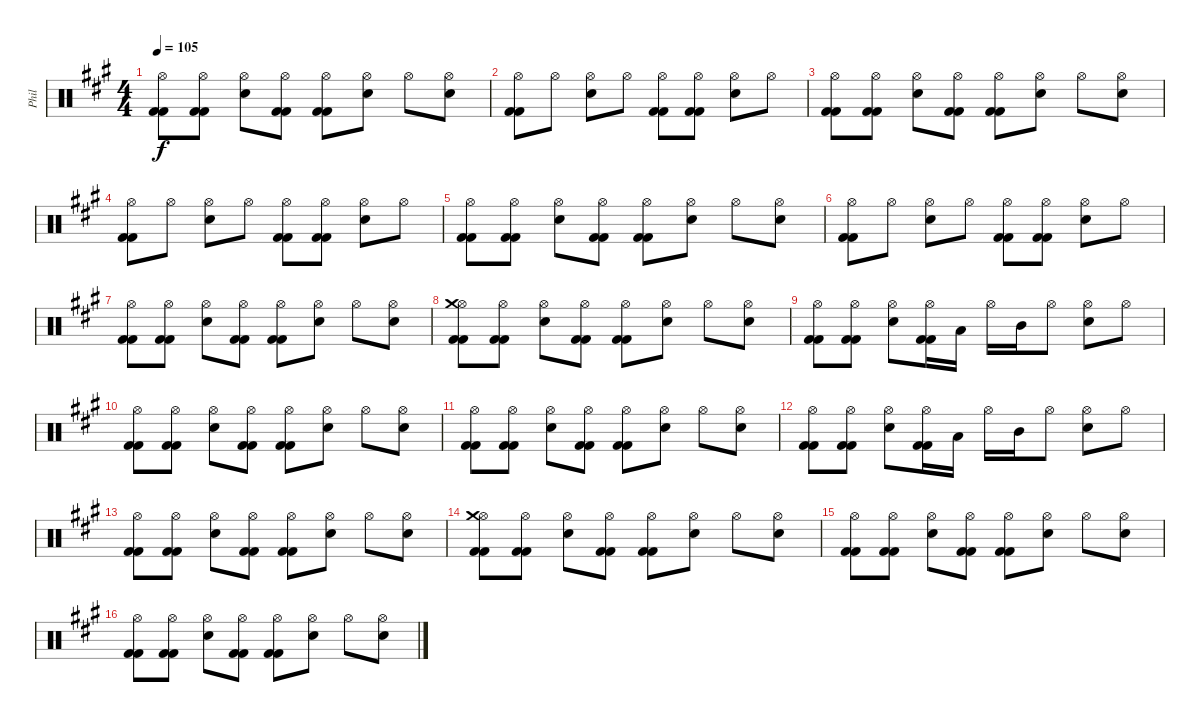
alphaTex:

\track ("Phil" "Phil") {instrument percussion}
\staff {score}
\articulation defaults
\ts (4 4)
\tempo 105
\clef neutral
\ks a
("Kick (hit) 2" "Hi-Hat (open)" "Kick (hit) 2").8{dy f} ("Kick (hit) 2" "Hi-Hat (open)" "Kick (hit) 2").8 ("Hi-Hat (open)" "Electric Snare (hit)").8 ("Kick (hit) 2" "Hi-Hat (open)" "Kick (hit) 2").8 ("Kick (hit) 2" "Hi-Hat (open)" "Kick (hit) 2").8 ("Hi-Hat (open)" "Electric Snare (hit)").8 "Hi-Hat (open)".8 ("Hi-Hat (open)" "Electric Snare (hit)").8 |
("Kick (hit) 2" "Hi-Hat (open)" "Kick (hit) 2").8 "Hi-Hat (open)".8 ("Hi-Hat (open)" "Electric Snare (hit)").8 "Hi-Hat (open)".8 ("Kick (hit) 2" "Hi-Hat (open)" "Kick (hit) 2").8 ("Kick (hit) 2" "Hi-Hat (open)" "Kick (hit) 2").8 ("Hi-Hat (open)" "Electric Snare (hit)").8 "Hi-Hat (open)".8 |
("Kick (hit) 2" "Hi-Hat (open)" "Kick (hit) 2").8 ("Kick (hit) 2" "Hi-Hat (open)" "Kick (hit) 2").8 ("Hi-Hat (open)" "Electric Snare (hit)").8 ("Kick (hit) 2" "Hi-Hat (open)" "Kick (hit) 2").8 ("Kick (hit) 2" "Hi-Hat (open)" "Kick (hit) 2").8 ("Hi-Hat (open)" "Electric Snare (hit)").8 "Hi-Hat (open)".8 ("Hi-Hat (open)" "Electric Snare (hit)").8 |
("Kick (hit) 2" "Hi-Hat (open)" "Kick (hit) 2").8 "Hi-Hat (open)".8 ("Hi-Hat (open)" "Electric Snare (hit)").8 "Hi-Hat (open)".8 ("Kick (hit) 2" "Hi-Hat (open)" "Kick (hit) 2").8 ("Kick (hit) 2" "Hi-Hat (open)" "Kick (hit) 2").8 ("Hi-Hat (open)" "Electric Snare (hit)").8 "Hi-Hat (open)".8 |
("Kick (hit) 2" "Hi-Hat (open)" "Kick (hit) 2").8 ("Kick (hit) 2" "Hi-Hat (open)" "Kick (hit) 2").8 ("Hi-Hat (open)" "Electric Snare (hit)").8 ("Kick (hit) 2" "Hi-Hat (open)" "Kick (hit) 2").8 ("Kick (hit) 2" "Hi-Hat (open)" "Kick (hit) 2").8 ("Hi-Hat (open)" "Electric Snare (hit)").8 "Hi-Hat (open)".8 ("Hi-Hat (open)" "Electric Snare (hit)").8 |
("Kick (hit) 2" "Hi-Hat (open)" "Kick (hit) 2").8 "Hi-Hat (open)".8 ("Hi-Hat (open)" "Electric Snare (hit)").8 "Hi-Hat (open)".8 ("Kick (hit) 2" "Hi-Hat (open)" "Kick (hit) 2").8 ("Kick (hit) 2" "Hi-Hat (open)" "Kick (hit) 2").8 ("Hi-Hat (open)" "Electric Snare (hit)").8 "Hi-Hat (open)".8 |
("Kick (hit) 2" "Hi-Hat (open)" "Kick (hit) 2").8 ("Kick (hit) 2" "Hi-Hat (open)" "Kick (hit) 2").8 ("Hi-Hat (open)" "Electric Snare (hit)").8 ("Kick (hit) 2" "Hi-Hat (open)" "Kick (hit) 2").8 ("Kick (hit) 2" "Hi-Hat (open)" "Kick (hit) 2").8 ("Hi-Hat (open)" "Electric Snare (hit)").8 "Hi-Hat (open)".8 ("Hi-Hat (open)" "Electric Snare (hit)").8 |
("Kick (hit) 2" "Hi-Hat (open)" "Kick (hit) 2" "Crash medium (hit)").8 ("Kick (hit) 2" "Hi-Hat (open)" "Kick (hit) 2").8 ("Hi-Hat (open)" "Electric Snare (hit)").8 ("Kick (hit) 2" "Hi-Hat (open)" "Kick (hit) 2").8 ("Kick (hit) 2" "Hi-Hat (open)" "Kick (hit) 2").8 ("Hi-Hat (open)" "Electric Snare (hit)").8 "Hi-Hat (open)".8 ("Hi-Hat (open)" "Electric Snare (hit)").8 |
("Kick (hit) 2" "Hi-Hat (open)" "Kick (hit) 2").8 ("Kick (hit) 2" "Hi-Hat (open)" "Kick (hit) 2").8 ("Hi-Hat (open)" "Electric Snare (hit)").8 ("Kick (hit) 2" "Hi-Hat (open)" "Kick (hit) 2").16 "Low Tom (hit)".16 "Hi-Hat (open)".16 "Mid Tom (hit)".16 "Hi-Hat (open)".8 ("Hi-Hat (open)" "Electric Snare (hit)").8 "Hi-Hat (open)".8 |
("Kick (hit) 2" "Hi-Hat (open)" "Kick (hit) 2").8 ("Kick (hit) 2" "Hi-Hat (open)" "Kick (hit) 2").8 ("Hi-Hat (open)" "Electric Snare (hit)").8 ("Kick (hit) 2" "Hi-Hat (open)" "Kick (hit) 2").8 ("Kick (hit) 2" "Hi-Hat (open)" "Kick (hit) 2").8 ("Hi-Hat (open)" "Electric Snare (hit)").8 "Hi-Hat (open)".8 ("Hi-Hat (open)" "Electric Snare (hit)").8 |
("Kick (hit) 2" "Hi-Hat (open)" "Kick (hit) 2").8 ("Kick (hit) 2" "Hi-Hat (open)" "Kick (hit) 2").8 ("Hi-Hat (open)" "Electric Snare (hit)").8 ("Kick (hit) 2" "Hi-Hat (open)" "Kick (hit) 2").8 ("Kick (hit) 2" "Hi-Hat (open)" "Kick (hit) 2").8 ("Hi-Hat (open)" "Electric Snare (hit)").8 "Hi-Hat (open)".8 ("Hi-Hat (open)" "Electric Snare (hit)").8 |
("Kick (hit) 2" "Hi-Hat (open)" "Kick (hit) 2").8 ("Kick (hit) 2" "Hi-Hat (open)" "Kick (hit) 2").8 ("Hi-Hat (open)" "Electric Snare (hit)").8 ("Kick (hit) 2" "Hi-Hat (open)" "Kick (hit) 2").16 "Low Tom (hit)".16 "Hi-Hat (open)".16 "Mid Tom (hit)".16 "Hi-Hat (open)".8 ("Hi-Hat (open)" "Electric Snare (hit)").8 "Hi-Hat (open)".8 |
("Kick (hit) 2" "Hi-Hat (open)" "Kick (hit) 2").8 ("Kick (hit) 2" "Hi-Hat (open)" "Kick (hit) 2").8 ("Hi-Hat (open)" "Electric Snare (hit)").8 ("Kick (hit) 2" "Hi-Hat (open)" "Kick (hit) 2").8 ("Kick (hit) 2" "Hi-Hat (open)" "Kick (hit) 2").8 ("Hi-Hat (open)" "Electric Snare (hit)").8 "Hi-Hat (open)".8 ("Hi-Hat (open)" "Electric Snare (hit)").8 |
("Kick (hit) 2" "Hi-Hat (open)" "Kick (hit) 2" "Crash medium (hit)").8 ("Kick (hit) 2" "Hi-Hat (open)" "Kick (hit) 2").8 ("Hi-Hat (open)" "Electric Snare (hit)").8 ("Kick (hit) 2" "Hi-Hat (open)" "Kick (hit) 2").8 ("Kick (hit) 2" "Hi-Hat (open)" "Kick (hit) 2").8 ("Hi-Hat (open)" "Electric Snare (hit)").8 "Hi-Hat (open)".8 ("Hi-Hat (open)" "Electric Snare (hit)").8 |
("Kick (hit) 2" "Hi-Hat (open)" "Kick (hit) 2").8 ("Kick (hit) 2" "Hi-Hat (open)" "Kick (hit) 2").8 ("Hi-Hat (open)" "Electric Snare (hit)").8 ("Kick (hit) 2" "Hi-Hat (open)" "Kick (hit) 2").8 ("Kick (hit) 2" "Hi-Hat (open)" "Kick (hit) 2").8 ("Hi-Hat (open)" "Electric Snare (hit)").8 "Hi-Hat (open)".8 ("Hi-Hat (open)" "Electric Snare (hit)").8 |
("Kick (hit) 2" "Hi-Hat (open)" "Kick (hit) 2").8 ("Kick (hit) 2" "Hi-Hat (open)" "Kick (hit) 2").8 ("Hi-Hat (open)" "Electric Snare (hit)").8 ("Kick (hit) 2" "Hi-Hat (open)" "Kick (hit) 2").8 ("Kick (hit) 2" "Hi-Hat (open)" "Kick (hit) 2").8 ("Hi-Hat (open)" "Electric Snare (hit)").8 "Hi-Hat (open)".8 ("Hi-Hat (open)" "Electric Snare (hit)").8
